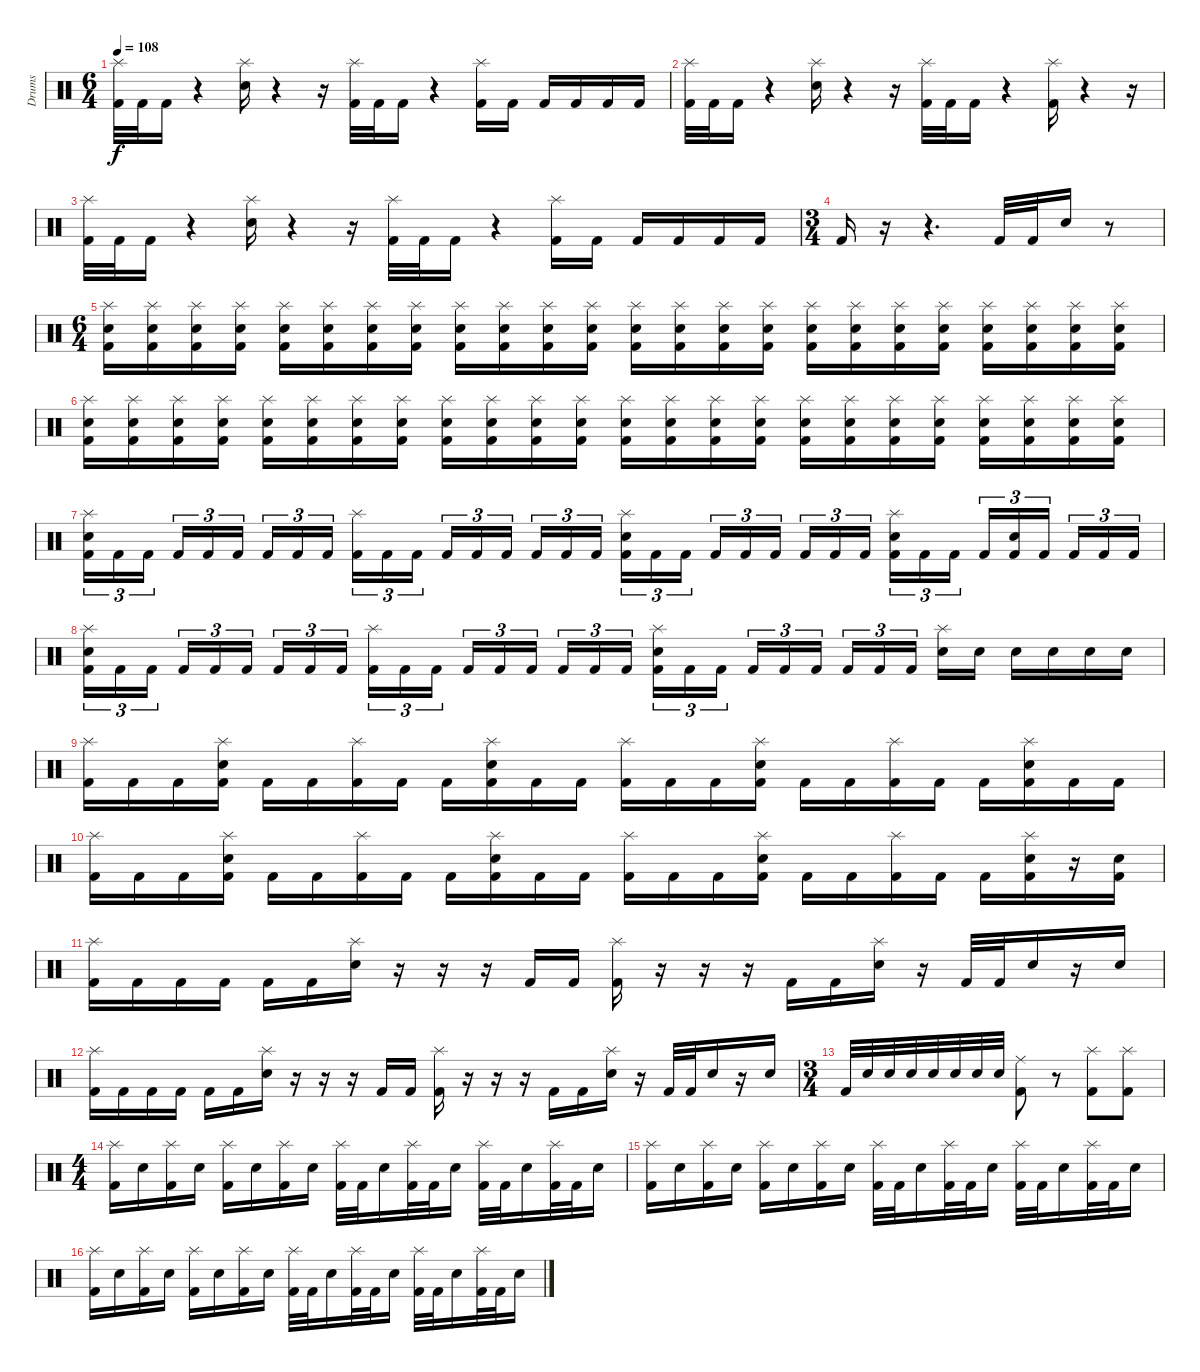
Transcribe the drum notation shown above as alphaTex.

\track ("Drums" "Drums") {instrument percussion}
\staff {score}
\articulation defaults
\ts (6 4)
\tempo 108
\clef neutral
\ks c
("Splash (hit)" "Kick (hit) 2").32{dy f} "Kick (hit) 2".32 "Kick (hit) 2".16 r.4 ("Splash (hit)" "Snare (hit) 2").16 r.4 r.16 ("Splash (hit)" "Kick (hit) 2").32 "Kick (hit) 2".32 "Kick (hit) 2".16 r.4 ("Splash (hit)" "Kick (hit) 2").16 "Kick (hit) 2".16 "Kick (hit) 2".16 "Kick (hit) 2".16 "Kick (hit) 2".16 "Kick (hit) 2".16 |
("Splash (hit)" "Kick (hit) 2").32 "Kick (hit) 2".32 "Kick (hit) 2".16 r.4 ("Splash (hit)" "Snare (hit) 2").16 r.4 r.16 ("Splash (hit)" "Kick (hit) 2").32 "Kick (hit) 2".32 "Kick (hit) 2".16 r.4 ("Splash (hit)" "Kick (hit) 2").16 r.4 r.16 |
("Splash (hit)" "Kick (hit) 2").32 "Kick (hit) 2".32 "Kick (hit) 2".16 r.4 ("Splash (hit)" "Snare (hit) 2").16 r.4 r.16 ("Splash (hit)" "Kick (hit) 2").32 "Kick (hit) 2".32 "Kick (hit) 2".16 r.4 ("Splash (hit)" "Kick (hit) 2").16 "Kick (hit) 2".16 "Kick (hit) 2".16 "Kick (hit) 2".16 "Kick (hit) 2".16 "Kick (hit) 2".16 |
\ts (3 4)
"Kick (hit) 2".16 r.16 r.4{d} "Kick (hit) 2".32 "Kick (hit) 2".32 "Snare (hit) 2".16 r.8 |
\ts (6 4)
("Splash (hit)" "Snare (hit) 2" "Kick (hit) 2").16 ("Splash (hit)" "Snare (hit) 2" "Kick (hit) 2").16 ("Splash (hit)" "Snare (hit) 2" "Kick (hit) 2").16 ("Splash (hit)" "Snare (hit) 2" "Kick (hit) 2").16 ("Splash (hit)" "Snare (hit) 2" "Kick (hit) 2").16 ("Splash (hit)" "Snare (hit) 2" "Kick (hit) 2").16 ("Splash (hit)" "Snare (hit) 2" "Kick (hit) 2").16 ("Splash (hit)" "Snare (hit) 2" "Kick (hit) 2").16 ("Splash (hit)" "Snare (hit) 2" "Kick (hit) 2").16 ("Splash (hit)" "Snare (hit) 2" "Kick (hit) 2").16 ("Splash (hit)" "Snare (hit) 2" "Kick (hit) 2").16 ("Splash (hit)" "Snare (hit) 2" "Kick (hit) 2").16 ("Splash (hit)" "Snare (hit) 2" "Kick (hit) 2").16 ("Splash (hit)" "Snare (hit) 2" "Kick (hit) 2").16 ("Splash (hit)" "Snare (hit) 2" "Kick (hit) 2").16 ("Splash (hit)" "Snare (hit) 2" "Kick (hit) 2").16 ("Splash (hit)" "Snare (hit) 2" "Kick (hit) 2").16 ("Splash (hit)" "Snare (hit) 2" "Kick (hit) 2").16 ("Splash (hit)" "Snare (hit) 2" "Kick (hit) 2").16 ("Splash (hit)" "Snare (hit) 2" "Kick (hit) 2").16 ("Splash (hit)" "Snare (hit) 2" "Kick (hit) 2").16 ("Splash (hit)" "Snare (hit) 2" "Kick (hit) 2").16 ("Splash (hit)" "Snare (hit) 2" "Kick (hit) 2").16 ("Splash (hit)" "Snare (hit) 2" "Kick (hit) 2").16 |
("Splash (hit)" "Snare (hit) 2" "Kick (hit) 2").16 ("Splash (hit)" "Snare (hit) 2" "Kick (hit) 2").16 ("Splash (hit)" "Snare (hit) 2" "Kick (hit) 2").16 ("Splash (hit)" "Snare (hit) 2" "Kick (hit) 2").16 ("Splash (hit)" "Snare (hit) 2" "Kick (hit) 2").16 ("Splash (hit)" "Snare (hit) 2" "Kick (hit) 2").16 ("Splash (hit)" "Snare (hit) 2" "Kick (hit) 2").16 ("Splash (hit)" "Snare (hit) 2" "Kick (hit) 2").16 ("Splash (hit)" "Snare (hit) 2" "Kick (hit) 2").16 ("Splash (hit)" "Snare (hit) 2" "Kick (hit) 2").16 ("Splash (hit)" "Snare (hit) 2" "Kick (hit) 2").16 ("Splash (hit)" "Snare (hit) 2" "Kick (hit) 2").16 ("Splash (hit)" "Snare (hit) 2" "Kick (hit) 2").16 ("Splash (hit)" "Snare (hit) 2" "Kick (hit) 2").16 ("Splash (hit)" "Snare (hit) 2" "Kick (hit) 2").16 ("Splash (hit)" "Snare (hit) 2" "Kick (hit) 2").16 ("Splash (hit)" "Snare (hit) 2" "Kick (hit) 2").16 ("Splash (hit)" "Snare (hit) 2" "Kick (hit) 2").16 ("Splash (hit)" "Snare (hit) 2" "Kick (hit) 2").16 ("Splash (hit)" "Snare (hit) 2" "Kick (hit) 2").16 ("Splash (hit)" "Snare (hit) 2" "Kick (hit) 2").16 ("Splash (hit)" "Snare (hit) 2" "Kick (hit) 2").16 ("Splash (hit)" "Snare (hit) 2" "Kick (hit) 2").16 ("Splash (hit)" "Snare (hit) 2" "Kick (hit) 2").16 |
("Splash (hit)" "Snare (hit) 2" "Kick (hit) 2").16{tu (3 2)} "Kick (hit) 2".16{tu (3 2)} "Kick (hit) 2".16{tu (3 2) beam splitsecondary} "Kick (hit) 2".16{tu (3 2)} "Kick (hit) 2".16{tu (3 2)} "Kick (hit) 2".16{tu (3 2) beam splitsecondary} "Kick (hit) 2".16{tu (3 2)} "Kick (hit) 2".16{tu (3 2)} "Kick (hit) 2".16{tu (3 2) beam splitsecondary} ("Splash (hit)" "Kick (hit) 2").16{tu (3 2)} "Kick (hit) 2".16{tu (3 2)} "Kick (hit) 2".16{tu (3 2) beam splitsecondary} "Kick (hit) 2".16{tu (3 2)} "Kick (hit) 2".16{tu (3 2)} "Kick (hit) 2".16{tu (3 2) beam splitsecondary} "Kick (hit) 2".16{tu (3 2)} "Kick (hit) 2".16{tu (3 2)} "Kick (hit) 2".16{tu (3 2)} ("Splash (hit)" "Snare (hit) 2" "Kick (hit) 2").16{tu (3 2)} "Kick (hit) 2".16{tu (3 2)} "Kick (hit) 2".16{tu (3 2) beam splitsecondary} "Kick (hit) 2".16{tu (3 2)} "Kick (hit) 2".16{tu (3 2)} "Kick (hit) 2".16{tu (3 2) beam splitsecondary} "Kick (hit) 2".16{tu (3 2)} "Kick (hit) 2".16{tu (3 2)} "Kick (hit) 2".16{tu (3 2) beam splitsecondary} ("Splash (hit)" "Snare (hit) 2" "Kick (hit) 2").16{tu (3 2)} "Kick (hit) 2".16{tu (3 2)} "Kick (hit) 2".16{tu (3 2) beam splitsecondary} "Kick (hit) 2".16{tu (3 2)} ("Snare (hit) 2" "Kick (hit) 2").16{tu (3 2)} "Kick (hit) 2".16{tu (3 2) beam splitsecondary} "Kick (hit) 2".16{tu (3 2)} "Kick (hit) 2".16{tu (3 2)} "Kick (hit) 2".16{tu (3 2)} |
("Splash (hit)" "Snare (hit) 2" "Kick (hit) 2").16{tu (3 2)} "Kick (hit) 2".16{tu (3 2)} "Kick (hit) 2".16{tu (3 2) beam splitsecondary} "Kick (hit) 2".16{tu (3 2)} "Kick (hit) 2".16{tu (3 2)} "Kick (hit) 2".16{tu (3 2) beam splitsecondary} "Kick (hit) 2".16{tu (3 2)} "Kick (hit) 2".16{tu (3 2)} "Kick (hit) 2".16{tu (3 2) beam splitsecondary} ("Splash (hit)" "Kick (hit) 2").16{tu (3 2)} "Kick (hit) 2".16{tu (3 2)} "Kick (hit) 2".16{tu (3 2) beam splitsecondary} "Kick (hit) 2".16{tu (3 2)} "Kick (hit) 2".16{tu (3 2)} "Kick (hit) 2".16{tu (3 2) beam splitsecondary} "Kick (hit) 2".16{tu (3 2)} "Kick (hit) 2".16{tu (3 2)} "Kick (hit) 2".16{tu (3 2)} ("Splash (hit)" "Snare (hit) 2" "Kick (hit) 2").16{tu (3 2)} "Kick (hit) 2".16{tu (3 2)} "Kick (hit) 2".16{tu (3 2) beam splitsecondary} "Kick (hit) 2".16{tu (3 2)} "Kick (hit) 2".16{tu (3 2)} "Kick (hit) 2".16{tu (3 2) beam splitsecondary} "Kick (hit) 2".16{tu (3 2)} "Kick (hit) 2".16{tu (3 2)} "Kick (hit) 2".16{tu (3 2) beam splitsecondary} ("Splash (hit)" "Snare (hit) 2").16 "Snare (hit) 2".16 "Snare (hit) 2".16 "Snare (hit) 2".16 "Snare (hit) 2".16 "Snare (hit) 2".16 |
("Splash (hit)" "Kick (hit) 2").16 "Kick (hit) 2".16 "Kick (hit) 2".16 ("Splash (hit)" "Snare (hit) 2" "Kick (hit) 2").16 "Kick (hit) 2".16 "Kick (hit) 2".16 ("Splash (hit)" "Kick (hit) 2").16 "Kick (hit) 2".16 "Kick (hit) 2".16 ("Splash (hit)" "Snare (hit) 2" "Kick (hit) 2").16 "Kick (hit) 2".16 "Kick (hit) 2".16 ("Splash (hit)" "Kick (hit) 2").16 "Kick (hit) 2".16 "Kick (hit) 2".16 ("Splash (hit)" "Snare (hit) 2" "Kick (hit) 2").16 "Kick (hit) 2".16 "Kick (hit) 2".16 ("Splash (hit)" "Kick (hit) 2").16 "Kick (hit) 2".16 "Kick (hit) 2".16 ("Splash (hit)" "Snare (hit) 2" "Kick (hit) 2").16 "Kick (hit) 2".16 "Kick (hit) 2".16 |
("Splash (hit)" "Kick (hit) 2").16 "Kick (hit) 2".16 "Kick (hit) 2".16 ("Splash (hit)" "Snare (hit) 2" "Kick (hit) 2").16 "Kick (hit) 2".16 "Kick (hit) 2".16 ("Splash (hit)" "Kick (hit) 2").16 "Kick (hit) 2".16 "Kick (hit) 2".16 ("Splash (hit)" "Snare (hit) 2" "Kick (hit) 2").16 "Kick (hit) 2".16 "Kick (hit) 2".16 ("Splash (hit)" "Kick (hit) 2").16 "Kick (hit) 2".16 "Kick (hit) 2".16 ("Splash (hit)" "Snare (hit) 2" "Kick (hit) 2").16 "Kick (hit) 2".16 "Kick (hit) 2".16 ("Splash (hit)" "Kick (hit) 2").16 "Kick (hit) 2".16 "Kick (hit) 2".16 ("Splash (hit)" "Snare (hit) 2" "Kick (hit) 2").16 r.16 ("Snare (hit) 2" "Kick (hit) 2").16 |
("Splash (hit)" "Kick (hit) 2").16 "Kick (hit) 2".16 "Kick (hit) 2".16 "Kick (hit) 2".16 "Kick (hit) 2".16 "Kick (hit) 2".16 ("Splash (hit)" "Snare (hit) 2").16 r.16 r.16 r.16 "Kick (hit) 2".16 "Kick (hit) 2".16 ("Splash (hit)" "Kick (hit) 2").16 r.16 r.16 r.16 "Kick (hit) 2".16 "Kick (hit) 2".16 ("Splash (hit)" "Snare (hit) 2").16 r.16 "Kick (hit) 2".32 "Kick (hit) 2".32 "Snare (hit) 2".16 r.16 "Snare (hit) 2".16 |
("Splash (hit)" "Kick (hit) 2").16 "Kick (hit) 2".16 "Kick (hit) 2".16 "Kick (hit) 2".16 "Kick (hit) 2".16 "Kick (hit) 2".16 ("Splash (hit)" "Snare (hit) 2").16 r.16 r.16 r.16 "Kick (hit) 2".16 "Kick (hit) 2".16 ("Splash (hit)" "Kick (hit) 2").16 r.16 r.16 r.16 "Kick (hit) 2".16 "Kick (hit) 2".16 ("Splash (hit)" "Snare (hit) 2").16 r.16 "Kick (hit) 2".32 "Kick (hit) 2".32 "Snare (hit) 2".16 r.16 "Snare (hit) 2".16 |
\ts (3 4)
"Kick (hit) 2".32 "Snare (hit) 2".32 "Snare (hit) 2".32 "Snare (hit) 2".32 "Snare (hit) 2".32 "Snare (hit) 2".32 "Snare (hit) 2".32 "Snare (hit) 2".32 ("Ride (middle)" "Kick (hit) 2").8 r.8 ("Splash (hit)" "Kick (hit) 2").8 ("Splash (hit)" "Kick (hit) 2").8 |
\ts (4 4)
("Splash (hit)" "Kick (hit) 2").16 "Snare (hit) 2".16 ("Splash (hit)" "Kick (hit) 2").16 "Snare (hit) 2".16 ("Splash (hit)" "Kick (hit) 2").16 "Snare (hit) 2".16 ("Splash (hit)" "Kick (hit) 2").16 "Snare (hit) 2".16 ("Splash (hit)" "Kick (hit) 2").32 "Kick (hit) 2".32 "Snare (hit) 2".16 ("Splash (hit)" "Kick (hit) 2").32 "Kick (hit) 2".32 "Snare (hit) 2".16 ("Splash (hit)" "Kick (hit) 2").32 "Kick (hit) 2".32 "Snare (hit) 2".16 ("Splash (hit)" "Kick (hit) 2").32 "Kick (hit) 2".32 "Snare (hit) 2".16 |
("Splash (hit)" "Kick (hit) 2").16 "Snare (hit) 2".16 ("Splash (hit)" "Kick (hit) 2").16 "Snare (hit) 2".16 ("Splash (hit)" "Kick (hit) 2").16 "Snare (hit) 2".16 ("Splash (hit)" "Kick (hit) 2").16 "Snare (hit) 2".16 ("Splash (hit)" "Kick (hit) 2").32 "Kick (hit) 2".32 "Snare (hit) 2".16 ("Splash (hit)" "Kick (hit) 2").32 "Kick (hit) 2".32 "Snare (hit) 2".16 ("Splash (hit)" "Kick (hit) 2").32 "Kick (hit) 2".32 "Snare (hit) 2".16 ("Splash (hit)" "Kick (hit) 2").32 "Kick (hit) 2".32 "Snare (hit) 2".16 |
("Splash (hit)" "Kick (hit) 2").16 "Snare (hit) 2".16 ("Splash (hit)" "Kick (hit) 2").16 "Snare (hit) 2".16 ("Splash (hit)" "Kick (hit) 2").16 "Snare (hit) 2".16 ("Splash (hit)" "Kick (hit) 2").16 "Snare (hit) 2".16 ("Splash (hit)" "Kick (hit) 2").32 "Kick (hit) 2".32 "Snare (hit) 2".16 ("Splash (hit)" "Kick (hit) 2").32 "Kick (hit) 2".32 "Snare (hit) 2".16 ("Splash (hit)" "Kick (hit) 2").32 "Kick (hit) 2".32 "Snare (hit) 2".16 ("Splash (hit)" "Kick (hit) 2").32 "Kick (hit) 2".32 "Snare (hit) 2".16
